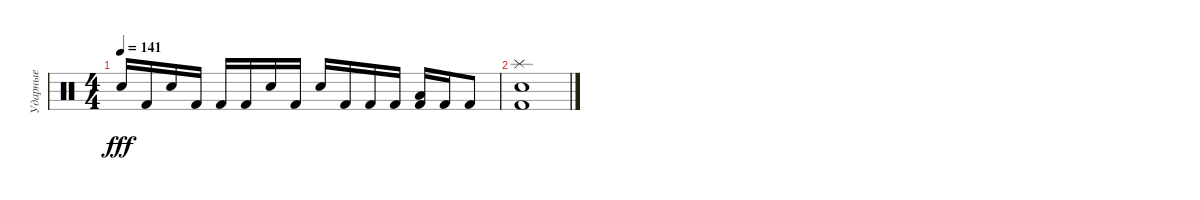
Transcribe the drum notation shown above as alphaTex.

\track ("Ударные" "Ударные") {instrument percussion}
\staff {score}
\articulation defaults
\ts (4 4)
\tempo 141
\clef neutral
\ks c "Electric Snare (hit)".16{dy fff} "Kick (hit) 2".16 "Electric Snare (hit)".16 "Kick (hit) 2".16 "Kick (hit) 2".16 "Kick (hit) 2".16 "Electric Snare (hit)".16 "Kick (hit) 2".16 "Electric Snare (hit)".16 "Kick (hit) 2".16 "Kick (hit) 2".16 "Kick (hit) 2".16
("Low Tom (hit)" "Kick (hit) 2").16 "Kick (hit) 2".16 "Kick (hit) 2".8 |
("Splash (hit)" "Electric Snare (hit)" "Kick (hit) 2").1
